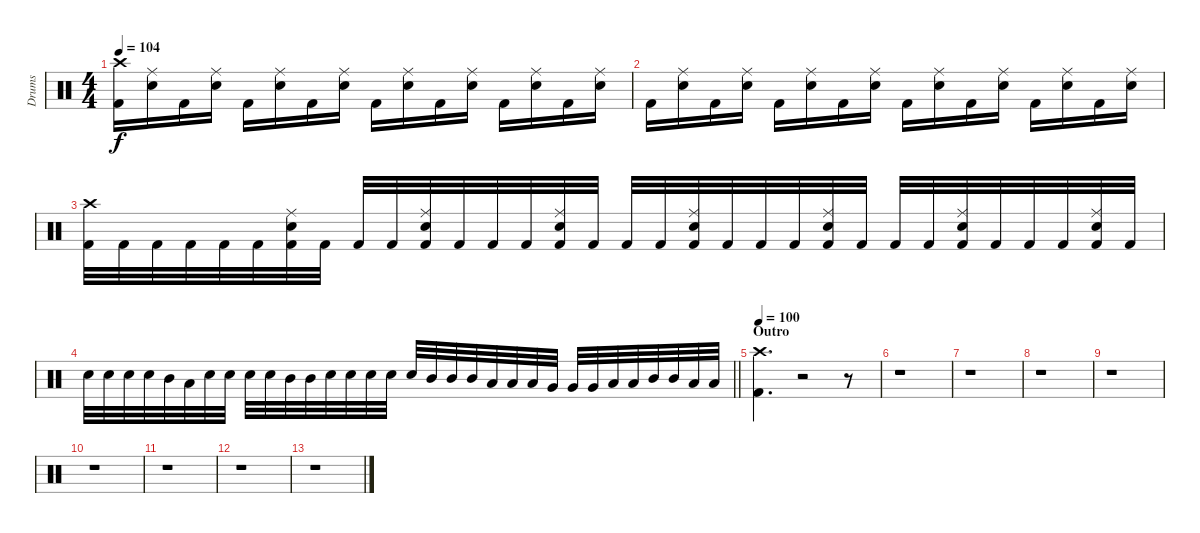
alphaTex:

\track ("Drums" "Drums") {instrument percussion}
\staff {score}
\articulation defaults
\ts (4 4)
\tempo 104
\clef neutral
\ks c
("Crash high (hit)" "Kick (hit) 2").16{dy f} ("Ride (middle)" "Electric Snare (hit)").16 "Kick (hit) 2".16 ("Ride (middle)" "Electric Snare (hit)").16 "Kick (hit) 2".16 ("Ride (middle)" "Electric Snare (hit)").16 "Kick (hit) 2".16 ("Ride (middle)" "Electric Snare (hit)").16 "Kick (hit) 2".16 ("Ride (middle)" "Electric Snare (hit)").16 "Kick (hit) 2".16 ("Ride (middle)" "Electric Snare (hit)").16 "Kick (hit) 2".16 ("Ride (middle)" "Electric Snare (hit)").16 "Kick (hit) 2".16 ("Ride (middle)" "Electric Snare (hit)").16 |
"Kick (hit) 2".16 ("Ride (middle)" "Electric Snare (hit)").16 "Kick (hit) 2".16 ("Ride (middle)" "Electric Snare (hit)").16 "Kick (hit) 2".16 ("Ride (middle)" "Electric Snare (hit)").16 "Kick (hit) 2".16 ("Ride (middle)" "Electric Snare (hit)").16 "Kick (hit) 2".16 ("Ride (middle)" "Electric Snare (hit)").16 "Kick (hit) 2".16 ("Ride (middle)" "Electric Snare (hit)").16 "Kick (hit) 2".16 ("Ride (middle)" "Electric Snare (hit)").16 "Kick (hit) 2".16 ("Ride (middle)" "Electric Snare (hit)").16 |
("Crash high (hit)" "Kick (hit) 2").32 "Kick (hit) 2".32 "Kick (hit) 2".32 "Kick (hit) 2".32 "Kick (hit) 2".32 "Kick (hit) 2".32 ("Ride (middle)" "Electric Snare (hit)" "Kick (hit) 2").32 "Kick (hit) 2".32 "Kick (hit) 2".32 "Kick (hit) 2".32 ("Ride (middle)" "Electric Snare (hit)" "Kick (hit) 2").32 "Kick (hit) 2".32 "Kick (hit) 2".32 "Kick (hit) 2".32 ("Ride (middle)" "Electric Snare (hit)" "Kick (hit) 2").32 "Kick (hit) 2".32 "Kick (hit) 2".32 "Kick (hit) 2".32 ("Ride (middle)" "Electric Snare (hit)" "Kick (hit) 2").32 "Kick (hit) 2".32 "Kick (hit) 2".32 "Kick (hit) 2".32 ("Ride (middle)" "Electric Snare (hit)" "Kick (hit) 2").32 "Kick (hit) 2".32 "Kick (hit) 2".32 "Kick (hit) 2".32 ("Ride (middle)" "Electric Snare (hit)" "Kick (hit) 2").32 "Kick (hit) 2".32 "Kick (hit) 2".32 "Kick (hit) 2".32 ("Ride (middle)" "Electric Snare (hit)" "Kick (hit) 2").32 "Kick (hit) 2".32 |
\barLineRight lightlight "Electric Snare (hit)".32 "Electric Snare (hit)".32 "Electric Snare (hit)".32 "Electric Snare (hit)".32 "Mid Tom (hit)".32 "Low Tom (hit)".32 "Electric Snare (hit)".32 "Electric Snare (hit)".32 "Electric Snare (hit)".32 "Electric Snare (hit)".32 "Mid Tom (hit)".32 "Mid Tom (hit)".32 "Electric Snare (hit)".32 "Electric Snare (hit)".32 "Electric Snare (hit)".32 "Electric Snare (hit)".32 "Electric Snare (hit)".32 "Mid Tom (hit)".32 "Mid Tom (hit)".32 "Mid Tom (hit)".32 "Low Tom (hit)".32 "Low Tom (hit)".32 "Low Tom (hit)".32 "Very Low Tom (hit)".32 "Very Low Tom (hit)".32 "Very Low Tom (hit)".32 "Low Floor Tom (hit)".32 "Low Floor Tom (hit)".32 "Mid Tom (hit)".32 "Mid Tom (hit)".32 "Low Tom (hit)".32 "Low Tom (hit)".32
|
\section ("" "Outro")
\tempo 100
("Crash high (hit)" "Kick (hit) 2").4{d} r.2 r.8 |
r.1 |
r.1 |
r.1 |
r.1 |
r.1 |
r.1 |
r.1 |
r.1
